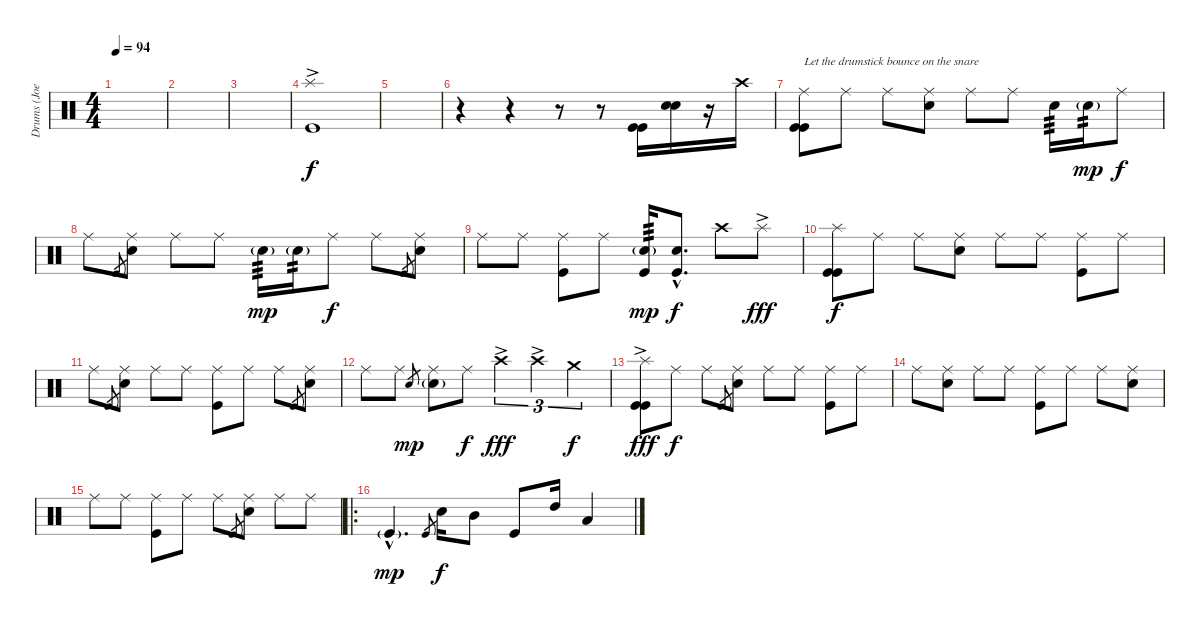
\track ("Drums (Joe)" "Drums (Joe") {instrument percussion}
\staff {score}
\articulation defaults
\ts (4 4)
\tempo 94
\clef neutral
\ks c
|
|
|
("Splash (hit)"{ac} "Kick (hit)").1 |
|
r.4 r.4 r.8 r.8 ("Kick (hit)" "Kick (hit)").16{dy f} ("Snare (hit) 2" "Snare (hit) 2").16 r.16 "Crash high (hit)".16 |
("Ride (middle)" "Kick (hit)" "Kick (hit)").8{txt "Let the drumstick bounce on the snare"} "Ride (middle)".8 "Ride (middle)".8 ("Ride (middle)" "Snare (hit) 2").8 "Ride (middle)".8 "Ride (middle)".8 "Snare (hit) 2".16{tp 3} "Snare (hit) 2"{g}.16{tp 2 dy mp} "Ride (middle)".8{dy f} |
"Ride (middle)".8 "Kick (hit)".8{gr} ("Ride (middle)" "Snare (hit) 2").8 "Ride (middle)".8 "Ride (middle)".8 "Snare (hit) 2"{g}.16{tp 3 dy mp} "Snare (hit) 2"{g}.16{tp 2} "Ride (middle)".8{dy f} "Ride (middle)".8 "Kick (hit)".8{gr} ("Ride (middle)" "Snare (hit) 2").8 |
"Ride (middle)".8 "Ride (middle)".8 ("Ride (middle)" "Kick (hit)").8 "Ride (middle)".8 ("Snare (hit) 2"{g} "Kick (hit)").16{tp 3 dy mp} ("Snare (hit) 2"{hac} "Kick (hit)"{hac}).8{d dy f} "Crash high (hit)".8 "Splash (hit)"{ac}.8{dy fff} |
("Splash (hit)" "Kick (hit)" "Kick (hit)").8{dy f} "Ride (middle)".8 "Ride (middle)".8 ("Ride (middle)" "Snare (hit) 2").8 "Ride (middle)".8 "Ride (middle)".8 ("Ride (middle)" "Kick (hit)").8 "Ride (middle)".8 |
"Ride (middle)".8 "Kick (hit)".8{gr} ("Ride (middle)" "Snare (hit) 2").8 "Ride (middle)".8 "Ride (middle)".8 ("Ride (middle)" "Kick (hit)").8 "Ride (middle)".8 "Ride (middle)".8 "Kick (hit)".8{gr} ("Ride (middle)" "Snare (hit) 2").8 |
"Ride (middle)".8 "Ride (middle)".8 "Snare (hit) 2".8{gr dy mp} ("Ride (middle)" "Snare (hit) 2"{g}).8 "Ride (middle)".8{dy f} "Crash high (hit)"{ac}.4{tu (3 2) dy fff} "Crash high (hit)"{ac}.4{tu (3 2)} "Crash medium (hit)".4{tu (3 2) dy f} |
("Splash (hit)"{ac} "Kick (hit)" "Kick (hit)").8{dy fff} "Ride (middle)".8{dy f} "Ride (middle)".8 "Kick (hit)".8{gr} ("Ride (middle)" "Snare (hit) 2").8 "Ride (middle)".8 "Ride (middle)".8 ("Ride (middle)" "Kick (hit)").8 "Ride (middle)".8 |
"Ride (middle)".8 ("Ride (middle)" "Snare (hit) 2").8 "Ride (middle)".8 "Ride (middle)".8 ("Ride (middle)" "Kick (hit)").8 "Ride (middle)".8 "Ride (middle)".8 ("Ride (middle)" "Snare (hit) 2").8 |
"Ride (middle)".8 "Ride (middle)".8 ("Ride (middle)" "Kick (hit)").8 "Ride (middle)".8 "Ride (middle)".8 "Kick (hit)".8{gr} ("Ride (middle)" "Snare (hit) 2").8 "Ride (middle)".8 "Ride (middle)".8 |
\ro "Kick (hit)"{g hac}.4{d dy mp} "Kick (hit)".8{gr} "Snare (hit) 2".16{dy f} "Mid Tom (hit)".8 "Kick (hit)".8 "High Tom (hit)".16 "Low Tom (hit)".4
